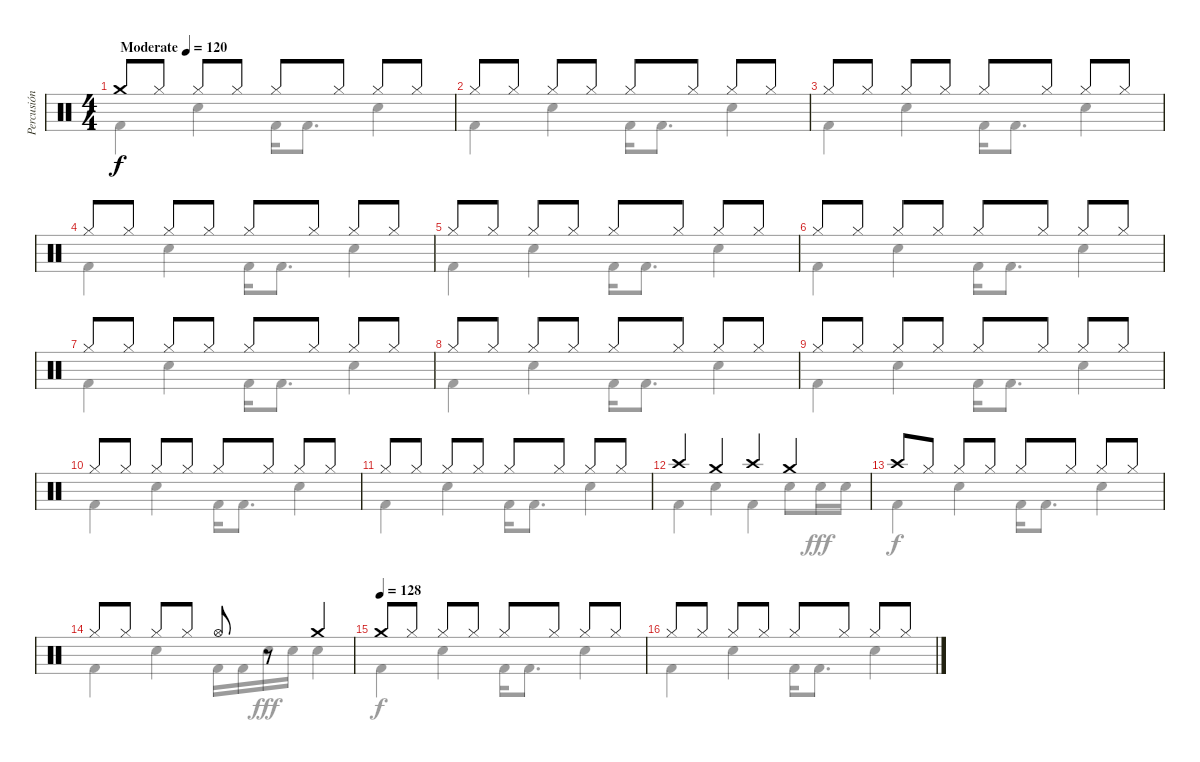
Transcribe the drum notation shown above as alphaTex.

\track ("Percusión" "Percusión") {instrument percussion}
\staff {score}
\articulation defaults
\voice
\ts (4 4)
\tempo (120 "Moderate")
\tempo 128
\tempo (120 "Moderate")
\clef neutral
\ks c "Crash medium (hit)".8{dy f volume 12 balance 8} "Hi-Hat (closed)".8 "Hi-Hat (closed)".8 "Hi-Hat (closed)".8 "Hi-Hat (closed)".8 "Hi-Hat (closed)".8 "Hi-Hat (closed)".8 "Hi-Hat (closed)".8
|
"Hi-Hat (closed)".8 "Hi-Hat (closed)".8 "Hi-Hat (closed)".8 "Hi-Hat (closed)".8 "Hi-Hat (closed)".8 "Hi-Hat (closed)".8 "Hi-Hat (closed)".8 "Hi-Hat (closed)".8 |
"Hi-Hat (closed)".8 "Hi-Hat (closed)".8 "Hi-Hat (closed)".8 "Hi-Hat (closed)".8 "Hi-Hat (closed)".8 "Hi-Hat (closed)".8 "Hi-Hat (closed)".8 "Hi-Hat (closed)".8 |
"Hi-Hat (closed)".8 "Hi-Hat (closed)".8 "Hi-Hat (closed)".8 "Hi-Hat (closed)".8 "Hi-Hat (closed)".8 "Hi-Hat (closed)".8 "Hi-Hat (closed)".8 "Hi-Hat (closed)".8 |
"Hi-Hat (closed)".8 "Hi-Hat (closed)".8 "Hi-Hat (closed)".8 "Hi-Hat (closed)".8 "Hi-Hat (closed)".8 "Hi-Hat (closed)".8 "Hi-Hat (closed)".8 "Hi-Hat (closed)".8 |
"Hi-Hat (closed)".8 "Hi-Hat (closed)".8 "Hi-Hat (closed)".8 "Hi-Hat (closed)".8 "Hi-Hat (closed)".8 "Hi-Hat (closed)".8 "Hi-Hat (closed)".8 "Hi-Hat (closed)".8 |
"Hi-Hat (closed)".8 "Hi-Hat (closed)".8 "Hi-Hat (closed)".8 "Hi-Hat (closed)".8 "Hi-Hat (closed)".8 "Hi-Hat (closed)".8 "Hi-Hat (closed)".8 "Hi-Hat (closed)".8 |
"Hi-Hat (closed)".8 "Hi-Hat (closed)".8 "Hi-Hat (closed)".8 "Hi-Hat (closed)".8 "Hi-Hat (closed)".8 "Hi-Hat (closed)".8 "Hi-Hat (closed)".8 "Hi-Hat (closed)".8 |
"Hi-Hat (closed)".8 "Hi-Hat (closed)".8 "Hi-Hat (closed)".8 "Hi-Hat (closed)".8 "Hi-Hat (closed)".8 "Hi-Hat (closed)".8 "Hi-Hat (closed)".8 "Hi-Hat (closed)".8 |
"Hi-Hat (closed)".8 "Hi-Hat (closed)".8 "Hi-Hat (closed)".8 "Hi-Hat (closed)".8 "Hi-Hat (closed)".8 "Hi-Hat (closed)".8 "Hi-Hat (closed)".8 "Hi-Hat (closed)".8 |
"Hi-Hat (closed)".8 "Hi-Hat (closed)".8 "Hi-Hat (closed)".8 "Hi-Hat (closed)".8 "Hi-Hat (closed)".8 "Hi-Hat (closed)".8 "Hi-Hat (closed)".8 "Hi-Hat (closed)".8 |
"Crash high (hit)".4 "Crash medium (hit)".4 "Crash high (hit)".4 "Crash medium (hit)".4 |
"Crash high (hit)".8 "Hi-Hat (closed)".8 "Hi-Hat (closed)".8 "Hi-Hat (closed)".8 "Hi-Hat (closed)".8 "Hi-Hat (closed)".8 "Hi-Hat (closed)".8 "Hi-Hat (closed)".8 |
"Hi-Hat (closed)".8 "Hi-Hat (closed)".8 "Hi-Hat (closed)".8 "Hi-Hat (closed)".8 "Hi-Hat (open)".8 r.8 "Crash medium (hit)".4 |
\tempo (128)
"Crash medium (hit)".8{volume 12 balance 8} "Hi-Hat (closed)".8 "Hi-Hat (closed)".8 "Hi-Hat (closed)".8 "Hi-Hat (closed)".8 "Hi-Hat (closed)".8 "Hi-Hat (closed)".8 "Hi-Hat (closed)".8 |
"Hi-Hat (closed)".8 "Hi-Hat (closed)".8 "Hi-Hat (closed)".8 "Hi-Hat (closed)".8 "Hi-Hat (closed)".8 "Hi-Hat (closed)".8 "Hi-Hat (closed)".8 "Hi-Hat (closed)".8
\voice
\clef neutral
\ottava regular
\simile none
\ks c "Kick (hit) 2".4{dy f} "Electric Snare (hit)".4 "Kick (hit) 2".16 "Kick (hit) 2".8{d} "Electric Snare (hit)".4
|
"Kick (hit) 2".4 "Electric Snare (hit)".4 "Kick (hit) 2".16 "Kick (hit) 2".8{d} "Electric Snare (hit)".4 |
"Kick (hit) 2".4 "Electric Snare (hit)".4 "Kick (hit) 2".16 "Kick (hit) 2".8{d} "Electric Snare (hit)".4 |
"Kick (hit) 2".4 "Electric Snare (hit)".4 "Kick (hit) 2".16 "Kick (hit) 2".8{d} "Electric Snare (hit)".4 |
"Kick (hit) 2".4 "Electric Snare (hit)".4 "Kick (hit) 2".16 "Kick (hit) 2".8{d} "Electric Snare (hit)".4 |
"Kick (hit) 2".4 "Electric Snare (hit)".4 "Kick (hit) 2".16 "Kick (hit) 2".8{d} "Electric Snare (hit)".4 |
"Kick (hit) 2".4 "Electric Snare (hit)".4 "Kick (hit) 2".16 "Kick (hit) 2".8{d} "Electric Snare (hit)".4 |
"Kick (hit) 2".4 "Electric Snare (hit)".4 "Kick (hit) 2".16 "Kick (hit) 2".8{d} "Electric Snare (hit)".4 |
"Kick (hit) 2".4 "Electric Snare (hit)".4 "Kick (hit) 2".16 "Kick (hit) 2".8{d} "Electric Snare (hit)".4 |
"Kick (hit) 2".4 "Electric Snare (hit)".4 "Kick (hit) 2".16 "Kick (hit) 2".8{d} "Electric Snare (hit)".4 |
"Kick (hit) 2".4 "Electric Snare (hit)".4 "Kick (hit) 2".16 "Kick (hit) 2".8{d} "Electric Snare (hit)".4 |
"Kick (hit) 2".4 "Electric Snare (hit)".4 "Kick (hit) 2".4 "Electric Snare (hit)".8 "Electric Snare (hit)".16{dy fff} "Electric Snare (hit)".16 |
"Kick (hit) 2".4{dy f} "Electric Snare (hit)".4 "Kick (hit) 2".16 "Kick (hit) 2".8{d} "Electric Snare (hit)".4 |
"Kick (hit) 2".4 "Electric Snare (hit)".4 "Kick (hit) 2".16 "Kick (hit) 2".16 "Electric Snare (hit)".16{dy fff} "Electric Snare (hit)".16 "Electric Snare (hit)".4 |
"Kick (hit) 2".4{dy f} "Electric Snare (hit)".4 "Kick (hit) 2".16 "Kick (hit) 2".8{d} "Electric Snare (hit)".4 |
"Kick (hit) 2".4 "Electric Snare (hit)".4 "Kick (hit) 2".16 "Kick (hit) 2".8{d} "Electric Snare (hit)".4
